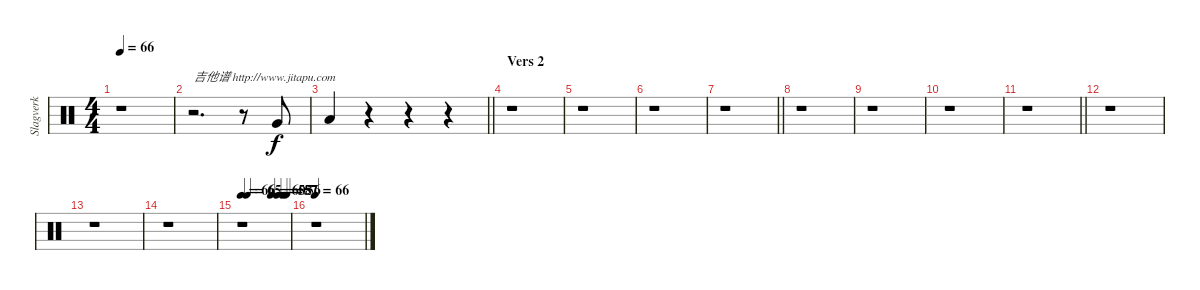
\track ("Slagverk" "Slagverk") {instrument percussion}
\staff {score}
\articulation defaults
\ts (4 4)
\tempo 66
\clef neutral
\ks c
r.1{dy f} |
r.2{d txt "吉他谱 http://www.jitapu.com"} r.8 "Very Low Tom (hit)".8 |
\barLineRight lightlight "Low Floor Tom (hit)".4
r.4 r.4 r.4 |
\section ("" "Vers 2")
r.1 |
r.1 |
r.1 |
\barLineRight lightlight
r.1 |
r.1 |
r.1 |
r.1 |
\barLineRight lightlight
r.1 |
r.1 |
r.1 |
r.1 |
\tempo 66
\tempo (65 0.125)
\tempo (60 0.625)
\tempo (58 0.75)
\tempo (57 0.875)
\tempo (56 0.9375)
r.1 |
\tempo 66
r.1
